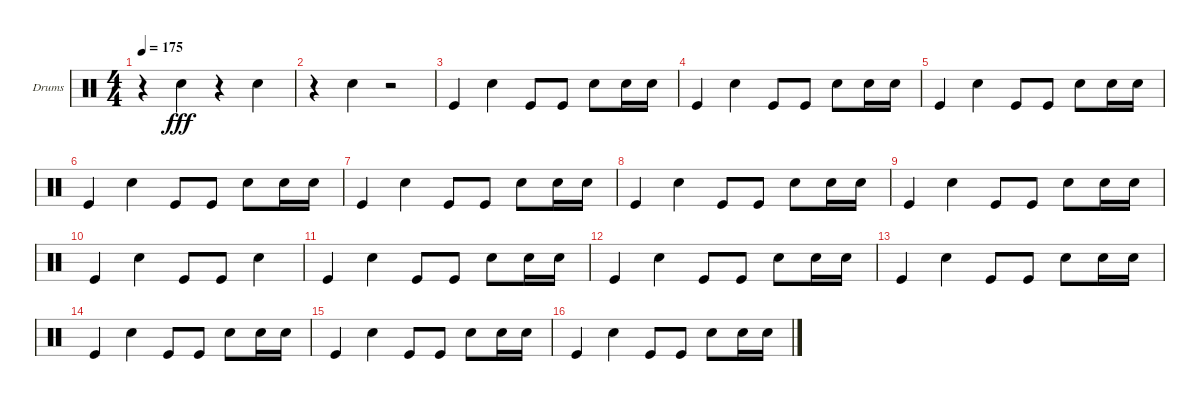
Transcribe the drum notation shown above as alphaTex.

\defaultSystemsLayout 4
\bracketExtendMode groupsimilarinstruments
\firstSystemTrackNameOrientation horizontal
\otherSystemsTrackNameOrientation horizontal
\track ("Helders" "Drums") {instrument percussion}
\staff {score}
\articulation defaults
\ts (4 4)
\tempo 175
\clef neutral
\ks c
r.4{dy fff} "Snare (hit) 2".4 r.4 "Snare (hit) 2".4 |
r.4 "Snare (hit) 2".4 r.2 |
"Kick (hit)".4 "Snare (hit) 2".4 "Kick (hit)".8 "Kick (hit)".8 "Snare (hit) 2".8 "Snare (hit) 2".16 "Snare (hit) 2".16 |
"Kick (hit)".4 "Snare (hit) 2".4 "Kick (hit)".8 "Kick (hit)".8 "Snare (hit) 2".8 "Snare (hit) 2".16 "Snare (hit) 2".16 |
"Kick (hit)".4 "Snare (hit) 2".4 "Kick (hit)".8 "Kick (hit)".8 "Snare (hit) 2".8 "Snare (hit) 2".16 "Snare (hit) 2".16 |
"Kick (hit)".4 "Snare (hit) 2".4 "Kick (hit)".8 "Kick (hit)".8 "Snare (hit) 2".8 "Snare (hit) 2".16 "Snare (hit) 2".16 |
"Kick (hit)".4 "Snare (hit) 2".4 "Kick (hit)".8 "Kick (hit)".8 "Snare (hit) 2".8 "Snare (hit) 2".16 "Snare (hit) 2".16 |
"Kick (hit)".4 "Snare (hit) 2".4 "Kick (hit)".8 "Kick (hit)".8 "Snare (hit) 2".8 "Snare (hit) 2".16 "Snare (hit) 2".16 |
"Kick (hit)".4 "Snare (hit) 2".4 "Kick (hit)".8 "Kick (hit)".8 "Snare (hit) 2".8 "Snare (hit) 2".16 "Snare (hit) 2".16 |
"Kick (hit)".4 "Snare (hit) 2".4 "Kick (hit)".8 "Kick (hit)".8 "Snare (hit) 2".4 |
"Kick (hit)".4 "Snare (hit) 2".4 "Kick (hit)".8 "Kick (hit)".8 "Snare (hit) 2".8 "Snare (hit) 2".16 "Snare (hit) 2".16 |
"Kick (hit)".4 "Snare (hit) 2".4 "Kick (hit)".8 "Kick (hit)".8 "Snare (hit) 2".8 "Snare (hit) 2".16 "Snare (hit) 2".16 |
"Kick (hit)".4 "Snare (hit) 2".4 "Kick (hit)".8 "Kick (hit)".8 "Snare (hit) 2".8 "Snare (hit) 2".16 "Snare (hit) 2".16 |
"Kick (hit)".4 "Snare (hit) 2".4 "Kick (hit)".8 "Kick (hit)".8 "Snare (hit) 2".8 "Snare (hit) 2".16 "Snare (hit) 2".16 |
"Kick (hit)".4 "Snare (hit) 2".4 "Kick (hit)".8 "Kick (hit)".8 "Snare (hit) 2".8 "Snare (hit) 2".16 "Snare (hit) 2".16 |
"Kick (hit)".4 "Snare (hit) 2".4 "Kick (hit)".8 "Kick (hit)".8 "Snare (hit) 2".8 "Snare (hit) 2".16 "Snare (hit) 2".16
